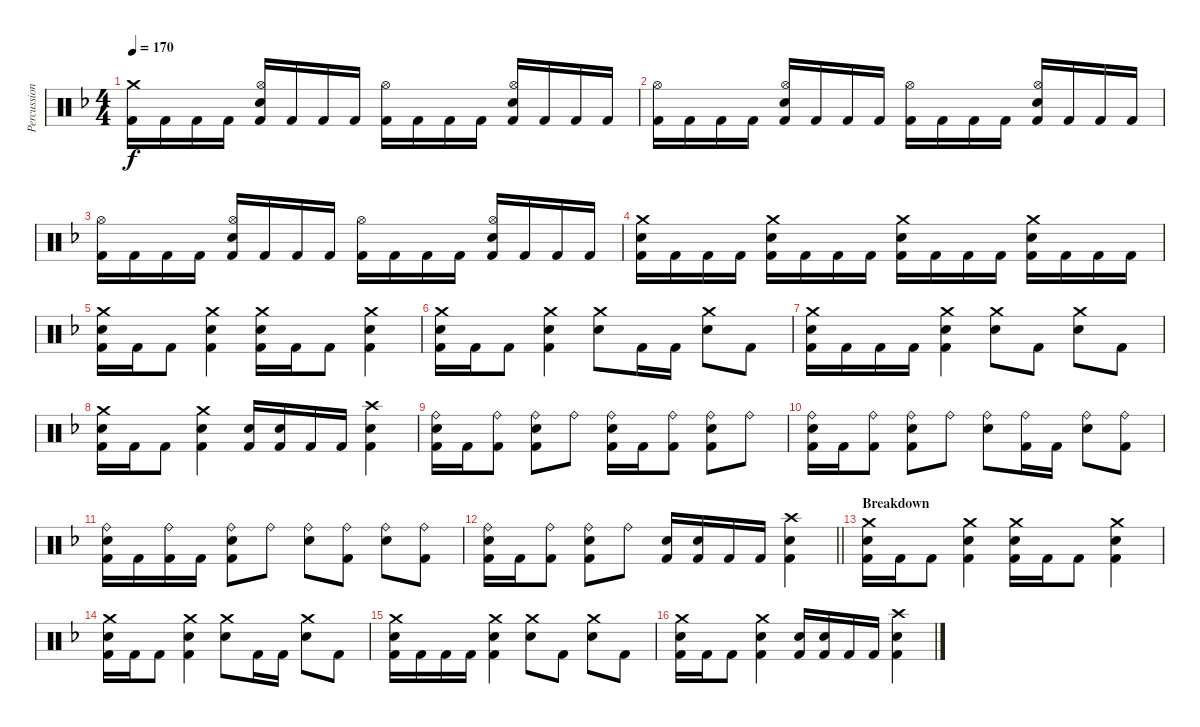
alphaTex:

\track ("Percussion" "Percussion") {instrument percussion}
\staff {score}
\articulation defaults
\ts (4 4)
\tempo 170
\clef neutral
\ks dminor
("Crash medium (hit)" "Kick (hit) 2").16{dy f} "Kick (hit) 2".16 "Kick (hit) 2".16 "Kick (hit) 2".16 ("Hi-Hat (open)" "Electric Snare (hit)" "Kick (hit) 2").16 "Kick (hit) 2".16 "Kick (hit) 2".16 "Kick (hit) 2".16 ("Hi-Hat (open)" "Kick (hit) 2").16 "Kick (hit) 2".16 "Kick (hit) 2".16 "Kick (hit) 2".16 ("Hi-Hat (open)" "Electric Snare (hit)" "Kick (hit) 2").16 "Kick (hit) 2".16 "Kick (hit) 2".16 "Kick (hit) 2".16 |
("Hi-Hat (open)" "Kick (hit) 2").16 "Kick (hit) 2".16 "Kick (hit) 2".16 "Kick (hit) 2".16 ("Hi-Hat (open)" "Electric Snare (hit)" "Kick (hit) 2").16 "Kick (hit) 2".16 "Kick (hit) 2".16 "Kick (hit) 2".16 ("Hi-Hat (open)" "Kick (hit) 2").16 "Kick (hit) 2".16 "Kick (hit) 2".16 "Kick (hit) 2".16 ("Hi-Hat (open)" "Electric Snare (hit)" "Kick (hit) 2").16 "Kick (hit) 2".16 "Kick (hit) 2".16 "Kick (hit) 2".16 |
("Hi-Hat (open)" "Kick (hit) 2").16 "Kick (hit) 2".16 "Kick (hit) 2".16 "Kick (hit) 2".16 ("Hi-Hat (open)" "Electric Snare (hit)" "Kick (hit) 2").16 "Kick (hit) 2".16 "Kick (hit) 2".16 "Kick (hit) 2".16 ("Hi-Hat (open)" "Kick (hit) 2").16 "Kick (hit) 2".16 "Kick (hit) 2".16 "Kick (hit) 2".16 ("Hi-Hat (open)" "Electric Snare (hit)" "Kick (hit) 2").16 "Kick (hit) 2".16 "Kick (hit) 2".16 "Kick (hit) 2".16 |
("Crash medium (hit)" "Electric Snare (hit)" "Kick (hit) 2").16 "Kick (hit) 2".16 "Kick (hit) 2".16 "Kick (hit) 2".16 ("Crash medium (hit)" "Electric Snare (hit)" "Kick (hit) 2").16 "Kick (hit) 2".16 "Kick (hit) 2".16 "Kick (hit) 2".16 ("Crash medium (hit)" "Electric Snare (hit)" "Kick (hit) 2").16 "Kick (hit) 2".16 "Kick (hit) 2".16 "Kick (hit) 2".16 ("Crash medium (hit)" "Electric Snare (hit)" "Kick (hit) 2").16 "Kick (hit) 2".16 "Kick (hit) 2".16 "Kick (hit) 2".16 |
("Crash medium (hit)" "Electric Snare (hit)" "Kick (hit) 2").16 "Kick (hit) 2".16 "Kick (hit) 2".8 ("Crash medium (hit)" "Electric Snare (hit)" "Kick (hit) 2").4 ("Crash medium (hit)" "Electric Snare (hit)" "Kick (hit) 2").16 "Kick (hit) 2".16 "Kick (hit) 2".8 ("Crash medium (hit)" "Electric Snare (hit)" "Kick (hit) 2").4 |
("Crash medium (hit)" "Electric Snare (hit)" "Kick (hit) 2").16 "Kick (hit) 2".16 "Kick (hit) 2".8 ("Crash medium (hit)" "Electric Snare (hit)" "Kick (hit) 2").4 ("Crash medium (hit)" "Electric Snare (hit)").8 "Kick (hit) 2".16 "Kick (hit) 2".16 ("Crash medium (hit)" "Electric Snare (hit)").8 "Kick (hit) 2".8 |
("Crash medium (hit)" "Electric Snare (hit)" "Kick (hit) 2").16 "Kick (hit) 2".16 "Kick (hit) 2".16 "Kick (hit) 2".16 ("Crash medium (hit)" "Electric Snare (hit)" "Kick (hit) 2").4 ("Crash medium (hit)" "Electric Snare (hit)").8 "Kick (hit) 2".8 ("Crash medium (hit)" "Electric Snare (hit)").8 "Kick (hit) 2".8 |
("Crash medium (hit)" "Electric Snare (hit)" "Kick (hit) 2").16 "Kick (hit) 2".16 "Kick (hit) 2".8 ("Crash medium (hit)" "Electric Snare (hit)" "Kick (hit) 2").4 ("Electric Snare (hit)" "Kick (hit) 2").16 ("Electric Snare (hit)" "Kick (hit) 2").16 "Kick (hit) 2".16 "Kick (hit) 2".16 ("Crash high (hit)" "Electric Snare (hit)" "Kick (hit) 2").4 |
("Ride (bell)" "Electric Snare (hit)" "Kick (hit) 2").16 "Kick (hit) 2".16 ("Ride (bell)" "Kick (hit) 2").8 ("Ride (bell)" "Electric Snare (hit)" "Kick (hit) 2").8 "Ride (bell)".8 ("Ride (bell)" "Electric Snare (hit)" "Kick (hit) 2").16 "Kick (hit) 2".16 ("Ride (bell)" "Kick (hit) 2").8 ("Ride (bell)" "Electric Snare (hit)" "Kick (hit) 2").8 "Ride (bell)".8 |
("Ride (bell)" "Electric Snare (hit)" "Kick (hit) 2").16 "Kick (hit) 2".16 ("Ride (bell)" "Kick (hit) 2").8 ("Ride (bell)" "Electric Snare (hit)" "Kick (hit) 2").8 "Ride (bell)".8 ("Ride (bell)" "Electric Snare (hit)").8 ("Ride (bell)" "Kick (hit) 2").16 "Kick (hit) 2".16 ("Ride (bell)" "Electric Snare (hit)").8 ("Ride (bell)" "Kick (hit) 2").8 |
("Ride (bell)" "Electric Snare (hit)" "Kick (hit) 2").16 "Kick (hit) 2".16 ("Ride (bell)" "Kick (hit) 2").16 "Kick (hit) 2".16 ("Ride (bell)" "Electric Snare (hit)" "Kick (hit) 2").8 "Ride (bell)".8 ("Ride (bell)" "Electric Snare (hit)").8 ("Ride (bell)" "Kick (hit) 2").8 ("Ride (bell)" "Electric Snare (hit)").8 ("Ride (bell)" "Kick (hit) 2").8 |
\barLineRight lightlight
("Ride (bell)" "Electric Snare (hit)" "Kick (hit) 2").16 "Kick (hit) 2".16 ("Ride (bell)" "Kick (hit) 2").8 ("Ride (bell)" "Electric Snare (hit)" "Kick (hit) 2").8 "Ride (bell)".8 ("Electric Snare (hit)" "Kick (hit) 2").16 ("Electric Snare (hit)" "Kick (hit) 2").16 "Kick (hit) 2".16 "Kick (hit) 2".16 ("Crash high (hit)" "Electric Snare (hit)" "Kick (hit) 2").4 |
\section ("" "Breakdown")
("Crash medium (hit)" "Electric Snare (hit)" "Kick (hit) 2").16 "Kick (hit) 2".16 "Kick (hit) 2".8 ("Crash medium (hit)" "Electric Snare (hit)" "Kick (hit) 2").4 ("Crash medium (hit)" "Electric Snare (hit)" "Kick (hit) 2").16 "Kick (hit) 2".16 "Kick (hit) 2".8 ("Crash medium (hit)" "Electric Snare (hit)" "Kick (hit) 2").4 |
("Crash medium (hit)" "Electric Snare (hit)" "Kick (hit) 2").16 "Kick (hit) 2".16 "Kick (hit) 2".8 ("Crash medium (hit)" "Electric Snare (hit)" "Kick (hit) 2").4 ("Crash medium (hit)" "Electric Snare (hit)").8 "Kick (hit) 2".16 "Kick (hit) 2".16 ("Crash medium (hit)" "Electric Snare (hit)").8 "Kick (hit) 2".8 |
("Crash medium (hit)" "Electric Snare (hit)" "Kick (hit) 2").16 "Kick (hit) 2".16 "Kick (hit) 2".16 "Kick (hit) 2".16 ("Crash medium (hit)" "Electric Snare (hit)" "Kick (hit) 2").4 ("Crash medium (hit)" "Electric Snare (hit)").8 "Kick (hit) 2".8 ("Crash medium (hit)" "Electric Snare (hit)").8 "Kick (hit) 2".8 |
("Crash medium (hit)" "Electric Snare (hit)" "Kick (hit) 2").16 "Kick (hit) 2".16 "Kick (hit) 2".8 ("Crash medium (hit)" "Electric Snare (hit)" "Kick (hit) 2").4 ("Electric Snare (hit)" "Kick (hit) 2").16 ("Electric Snare (hit)" "Kick (hit) 2").16 "Kick (hit) 2".16 "Kick (hit) 2".16 ("Crash high (hit)" "Electric Snare (hit)" "Kick (hit) 2").4
